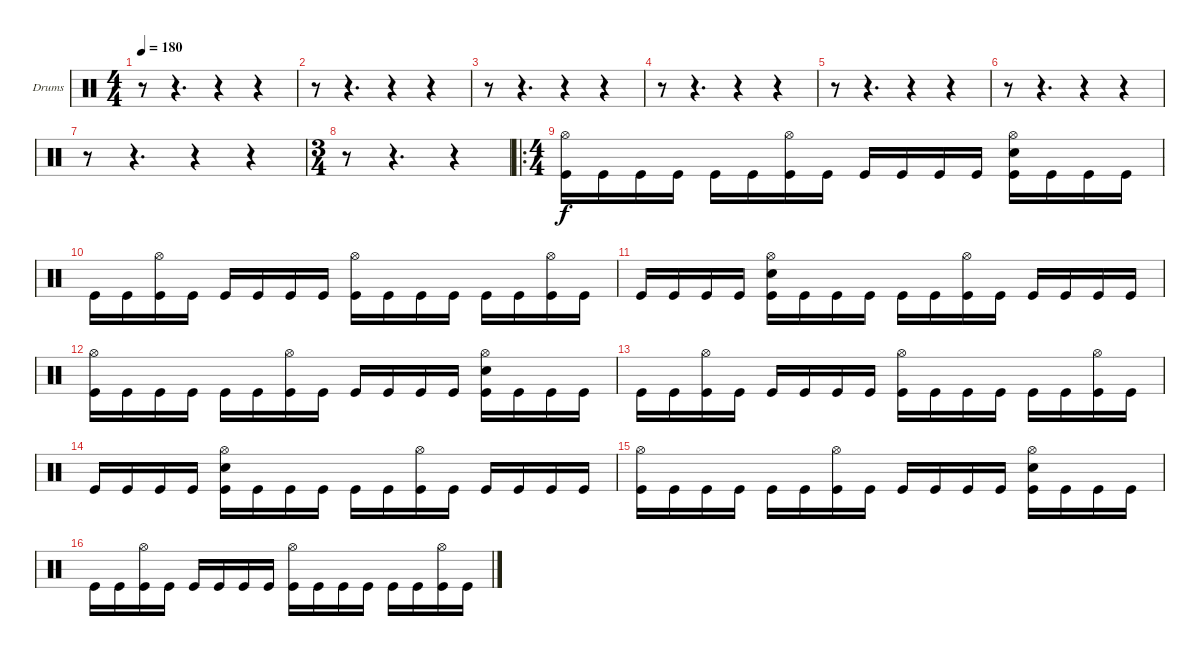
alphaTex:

\bracketExtendMode groupsimilarinstruments
\firstSystemTrackNameOrientation horizontal
\otherSystemsTrackNameOrientation horizontal
\track ("Drumkit" "Drums") {instrument percussion}
\staff {score}
\articulation defaults
\ts (4 4)
\tempo 180
\clef neutral
\ks c
r.8{dy f} r.4{d} r.4 r.4 |
r.8 r.4{d} r.4 r.4 |
r.8 r.4{d} r.4 r.4 |
r.8 r.4{d} r.4 r.4 |
r.8 r.4{d} r.4 r.4 |
r.8 r.4{d} r.4 r.4 |
r.8 r.4{d} r.4 r.4 |
\ts (3 4)
r.8 r.4{d} r.4 |
\ro
\ts (4 4)
("Hi-Hat (open)" "Kick (hit)").16 "Kick (hit)".16 "Kick (hit)".16 "Kick (hit)".16 "Kick (hit)".16 "Kick (hit)".16 ("Hi-Hat (open)" "Kick (hit)").16 "Kick (hit)".16 "Kick (hit)".16 "Kick (hit)".16 "Kick (hit)".16 "Kick (hit)".16 ("Hi-Hat (open)" "Snare (hit) 2" "Kick (hit)").16 "Kick (hit)".16 "Kick (hit)".16 "Kick (hit)".16 |
"Kick (hit)".16 "Kick (hit)".16 ("Hi-Hat (open)" "Kick (hit)").16 "Kick (hit)".16 "Kick (hit)".16 "Kick (hit)".16 "Kick (hit)".16 "Kick (hit)".16 ("Hi-Hat (open)" "Kick (hit)").16 "Kick (hit)".16 "Kick (hit)".16 "Kick (hit)".16 "Kick (hit)".16 "Kick (hit)".16 ("Hi-Hat (open)" "Kick (hit)").16 "Kick (hit)".16 |
"Kick (hit)".16 "Kick (hit)".16 "Kick (hit)".16 "Kick (hit)".16 ("Hi-Hat (open)" "Snare (hit) 2" "Kick (hit)").16 "Kick (hit)".16 "Kick (hit)".16 "Kick (hit)".16 "Kick (hit)".16 "Kick (hit)".16 ("Hi-Hat (open)" "Kick (hit)").16 "Kick (hit)".16 "Kick (hit)".16 "Kick (hit)".16 "Kick (hit)".16 "Kick (hit)".16 |
("Hi-Hat (open)" "Kick (hit)").16 "Kick (hit)".16 "Kick (hit)".16 "Kick (hit)".16 "Kick (hit)".16 "Kick (hit)".16 ("Hi-Hat (open)" "Kick (hit)").16 "Kick (hit)".16 "Kick (hit)".16 "Kick (hit)".16 "Kick (hit)".16 "Kick (hit)".16 ("Hi-Hat (open)" "Snare (hit) 2" "Kick (hit)").16 "Kick (hit)".16 "Kick (hit)".16 "Kick (hit)".16 |
"Kick (hit)".16 "Kick (hit)".16 ("Hi-Hat (open)" "Kick (hit)").16 "Kick (hit)".16 "Kick (hit)".16 "Kick (hit)".16 "Kick (hit)".16 "Kick (hit)".16 ("Hi-Hat (open)" "Kick (hit)").16 "Kick (hit)".16 "Kick (hit)".16 "Kick (hit)".16 "Kick (hit)".16 "Kick (hit)".16 ("Hi-Hat (open)" "Kick (hit)").16 "Kick (hit)".16 |
"Kick (hit)".16 "Kick (hit)".16 "Kick (hit)".16 "Kick (hit)".16 ("Hi-Hat (open)" "Snare (hit) 2" "Kick (hit)").16 "Kick (hit)".16 "Kick (hit)".16 "Kick (hit)".16 "Kick (hit)".16 "Kick (hit)".16 ("Hi-Hat (open)" "Kick (hit)").16 "Kick (hit)".16 "Kick (hit)".16 "Kick (hit)".16 "Kick (hit)".16 "Kick (hit)".16 |
("Hi-Hat (open)" "Kick (hit)").16 "Kick (hit)".16 "Kick (hit)".16 "Kick (hit)".16 "Kick (hit)".16 "Kick (hit)".16 ("Hi-Hat (open)" "Kick (hit)").16 "Kick (hit)".16 "Kick (hit)".16 "Kick (hit)".16 "Kick (hit)".16 "Kick (hit)".16 ("Hi-Hat (open)" "Snare (hit) 2" "Kick (hit)").16 "Kick (hit)".16 "Kick (hit)".16 "Kick (hit)".16 |
"Kick (hit)".16 "Kick (hit)".16 ("Hi-Hat (open)" "Kick (hit)").16 "Kick (hit)".16 "Kick (hit)".16 "Kick (hit)".16 "Kick (hit)".16 "Kick (hit)".16 ("Hi-Hat (open)" "Kick (hit)").16 "Kick (hit)".16 "Kick (hit)".16 "Kick (hit)".16 "Kick (hit)".16 "Kick (hit)".16 ("Hi-Hat (open)" "Kick (hit)").16 "Kick (hit)".16
